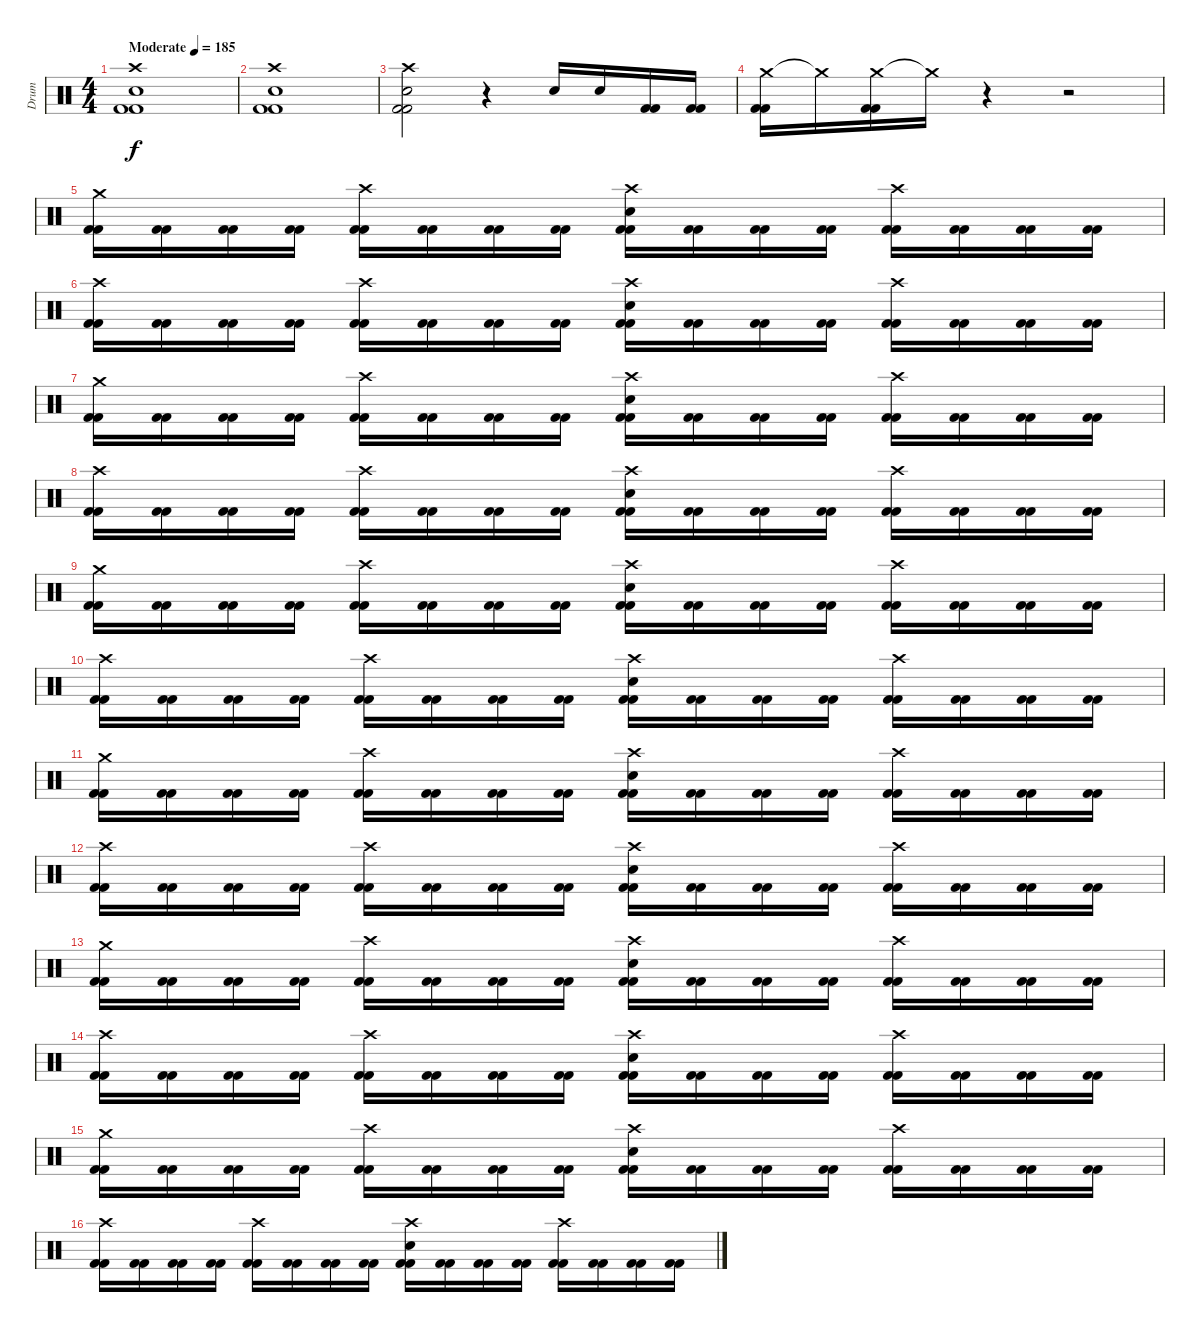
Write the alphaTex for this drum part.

\track ("Drum" "Drum") {instrument percussion}
\staff {score}
\articulation defaults
\ts (4 4)
\tempo (185 "Moderate")
\clef neutral
\ks c
("Crash high (hit)" "Electric Snare (hit)" "Kick (hit) 2" "Kick (hit) 2").1{dy f} |
("Crash high (hit)" "Electric Snare (hit)" "Kick (hit) 2" "Kick (hit) 2").1 |
("Crash high (hit)" "Electric Snare (hit)" "Kick (hit) 2" "Kick (hit) 2").2 r.4 "Electric Snare (hit)".16 "Electric Snare (hit)".16 ("Kick (hit) 2" "Kick (hit) 2").16 ("Kick (hit) 2" "Kick (hit) 2").16 |
("Crash medium (hit)" "Kick (hit) 2" "Kick (hit) 2").16{volume 14} "Crash medium (hit)"{t}.16{volume 2} ("Crash medium (hit)" "Kick (hit) 2" "Kick (hit) 2").16{volume 14} "Crash medium (hit)"{t}.16{volume 2} r.4{volume 14} r.2 |
("Crash medium (hit)" "Kick (hit) 2" "Kick (hit) 2").16 ("Kick (hit) 2" "Kick (hit) 2").16 ("Kick (hit) 2" "Kick (hit) 2").16 ("Kick (hit) 2" "Kick (hit) 2").16 ("Crash high (hit)" "Kick (hit) 2" "Kick (hit) 2").16 ("Kick (hit) 2" "Kick (hit) 2").16 ("Kick (hit) 2" "Kick (hit) 2").16 ("Kick (hit) 2" "Kick (hit) 2").16 ("Crash high (hit)" "Electric Snare (hit)" "Kick (hit) 2" "Kick (hit) 2").16 ("Kick (hit) 2" "Kick (hit) 2").16 ("Kick (hit) 2" "Kick (hit) 2").16 ("Kick (hit) 2" "Kick (hit) 2").16 ("Crash high (hit)" "Kick (hit) 2" "Kick (hit) 2").16 ("Kick (hit) 2" "Kick (hit) 2").16 ("Kick (hit) 2" "Kick (hit) 2").16 ("Kick (hit) 2" "Kick (hit) 2").16 |
("Crash high (hit)" "Kick (hit) 2" "Kick (hit) 2").16 ("Kick (hit) 2" "Kick (hit) 2").16 ("Kick (hit) 2" "Kick (hit) 2").16 ("Kick (hit) 2" "Kick (hit) 2").16 ("Crash high (hit)" "Kick (hit) 2" "Kick (hit) 2").16 ("Kick (hit) 2" "Kick (hit) 2").16 ("Kick (hit) 2" "Kick (hit) 2").16 ("Kick (hit) 2" "Kick (hit) 2").16 ("Crash high (hit)" "Electric Snare (hit)" "Kick (hit) 2" "Kick (hit) 2").16 ("Kick (hit) 2" "Kick (hit) 2").16 ("Kick (hit) 2" "Kick (hit) 2").16 ("Kick (hit) 2" "Kick (hit) 2").16 ("Crash high (hit)" "Kick (hit) 2" "Kick (hit) 2").16 ("Kick (hit) 2" "Kick (hit) 2").16 ("Kick (hit) 2" "Kick (hit) 2").16 ("Kick (hit) 2" "Kick (hit) 2").16 |
("Crash medium (hit)" "Kick (hit) 2" "Kick (hit) 2").16 ("Kick (hit) 2" "Kick (hit) 2").16 ("Kick (hit) 2" "Kick (hit) 2").16 ("Kick (hit) 2" "Kick (hit) 2").16 ("Crash high (hit)" "Kick (hit) 2" "Kick (hit) 2").16 ("Kick (hit) 2" "Kick (hit) 2").16 ("Kick (hit) 2" "Kick (hit) 2").16 ("Kick (hit) 2" "Kick (hit) 2").16 ("Crash high (hit)" "Electric Snare (hit)" "Kick (hit) 2" "Kick (hit) 2").16 ("Kick (hit) 2" "Kick (hit) 2").16 ("Kick (hit) 2" "Kick (hit) 2").16 ("Kick (hit) 2" "Kick (hit) 2").16 ("Crash high (hit)" "Kick (hit) 2" "Kick (hit) 2").16 ("Kick (hit) 2" "Kick (hit) 2").16 ("Kick (hit) 2" "Kick (hit) 2").16 ("Kick (hit) 2" "Kick (hit) 2").16 |
("Crash high (hit)" "Kick (hit) 2" "Kick (hit) 2").16 ("Kick (hit) 2" "Kick (hit) 2").16 ("Kick (hit) 2" "Kick (hit) 2").16 ("Kick (hit) 2" "Kick (hit) 2").16 ("Crash high (hit)" "Kick (hit) 2" "Kick (hit) 2").16 ("Kick (hit) 2" "Kick (hit) 2").16 ("Kick (hit) 2" "Kick (hit) 2").16 ("Kick (hit) 2" "Kick (hit) 2").16 ("Crash high (hit)" "Electric Snare (hit)" "Kick (hit) 2" "Kick (hit) 2").16 ("Kick (hit) 2" "Kick (hit) 2").16 ("Kick (hit) 2" "Kick (hit) 2").16 ("Kick (hit) 2" "Kick (hit) 2").16 ("Crash high (hit)" "Kick (hit) 2" "Kick (hit) 2").16 ("Kick (hit) 2" "Kick (hit) 2").16 ("Kick (hit) 2" "Kick (hit) 2").16 ("Kick (hit) 2" "Kick (hit) 2").16 |
("Crash medium (hit)" "Kick (hit) 2" "Kick (hit) 2").16 ("Kick (hit) 2" "Kick (hit) 2").16 ("Kick (hit) 2" "Kick (hit) 2").16 ("Kick (hit) 2" "Kick (hit) 2").16 ("Crash high (hit)" "Kick (hit) 2" "Kick (hit) 2").16 ("Kick (hit) 2" "Kick (hit) 2").16 ("Kick (hit) 2" "Kick (hit) 2").16 ("Kick (hit) 2" "Kick (hit) 2").16 ("Crash high (hit)" "Electric Snare (hit)" "Kick (hit) 2" "Kick (hit) 2").16 ("Kick (hit) 2" "Kick (hit) 2").16 ("Kick (hit) 2" "Kick (hit) 2").16 ("Kick (hit) 2" "Kick (hit) 2").16 ("Crash high (hit)" "Kick (hit) 2" "Kick (hit) 2").16 ("Kick (hit) 2" "Kick (hit) 2").16 ("Kick (hit) 2" "Kick (hit) 2").16 ("Kick (hit) 2" "Kick (hit) 2").16 |
("Crash high (hit)" "Kick (hit) 2" "Kick (hit) 2").16 ("Kick (hit) 2" "Kick (hit) 2").16 ("Kick (hit) 2" "Kick (hit) 2").16 ("Kick (hit) 2" "Kick (hit) 2").16 ("Crash high (hit)" "Kick (hit) 2" "Kick (hit) 2").16 ("Kick (hit) 2" "Kick (hit) 2").16 ("Kick (hit) 2" "Kick (hit) 2").16 ("Kick (hit) 2" "Kick (hit) 2").16 ("Crash high (hit)" "Electric Snare (hit)" "Kick (hit) 2" "Kick (hit) 2").16 ("Kick (hit) 2" "Kick (hit) 2").16 ("Kick (hit) 2" "Kick (hit) 2").16 ("Kick (hit) 2" "Kick (hit) 2").16 ("Crash high (hit)" "Kick (hit) 2" "Kick (hit) 2").16 ("Kick (hit) 2" "Kick (hit) 2").16 ("Kick (hit) 2" "Kick (hit) 2").16 ("Kick (hit) 2" "Kick (hit) 2").16 |
("Crash medium (hit)" "Kick (hit) 2" "Kick (hit) 2").16 ("Kick (hit) 2" "Kick (hit) 2").16 ("Kick (hit) 2" "Kick (hit) 2").16 ("Kick (hit) 2" "Kick (hit) 2").16 ("Crash high (hit)" "Kick (hit) 2" "Kick (hit) 2").16 ("Kick (hit) 2" "Kick (hit) 2").16 ("Kick (hit) 2" "Kick (hit) 2").16 ("Kick (hit) 2" "Kick (hit) 2").16 ("Crash high (hit)" "Electric Snare (hit)" "Kick (hit) 2" "Kick (hit) 2").16 ("Kick (hit) 2" "Kick (hit) 2").16 ("Kick (hit) 2" "Kick (hit) 2").16 ("Kick (hit) 2" "Kick (hit) 2").16 ("Crash high (hit)" "Kick (hit) 2" "Kick (hit) 2").16 ("Kick (hit) 2" "Kick (hit) 2").16 ("Kick (hit) 2" "Kick (hit) 2").16 ("Kick (hit) 2" "Kick (hit) 2").16 |
("Crash high (hit)" "Kick (hit) 2" "Kick (hit) 2").16 ("Kick (hit) 2" "Kick (hit) 2").16 ("Kick (hit) 2" "Kick (hit) 2").16 ("Kick (hit) 2" "Kick (hit) 2").16 ("Crash high (hit)" "Kick (hit) 2" "Kick (hit) 2").16 ("Kick (hit) 2" "Kick (hit) 2").16 ("Kick (hit) 2" "Kick (hit) 2").16 ("Kick (hit) 2" "Kick (hit) 2").16 ("Crash high (hit)" "Electric Snare (hit)" "Kick (hit) 2" "Kick (hit) 2").16 ("Kick (hit) 2" "Kick (hit) 2").16 ("Kick (hit) 2" "Kick (hit) 2").16 ("Kick (hit) 2" "Kick (hit) 2").16 ("Crash high (hit)" "Kick (hit) 2" "Kick (hit) 2").16 ("Kick (hit) 2" "Kick (hit) 2").16 ("Kick (hit) 2" "Kick (hit) 2").16 ("Kick (hit) 2" "Kick (hit) 2").16 |
("Crash medium (hit)" "Kick (hit) 2" "Kick (hit) 2").16 ("Kick (hit) 2" "Kick (hit) 2").16 ("Kick (hit) 2" "Kick (hit) 2").16 ("Kick (hit) 2" "Kick (hit) 2").16 ("Crash high (hit)" "Kick (hit) 2" "Kick (hit) 2").16 ("Kick (hit) 2" "Kick (hit) 2").16 ("Kick (hit) 2" "Kick (hit) 2").16 ("Kick (hit) 2" "Kick (hit) 2").16 ("Crash high (hit)" "Electric Snare (hit)" "Kick (hit) 2" "Kick (hit) 2").16 ("Kick (hit) 2" "Kick (hit) 2").16 ("Kick (hit) 2" "Kick (hit) 2").16 ("Kick (hit) 2" "Kick (hit) 2").16 ("Crash high (hit)" "Kick (hit) 2" "Kick (hit) 2").16 ("Kick (hit) 2" "Kick (hit) 2").16 ("Kick (hit) 2" "Kick (hit) 2").16 ("Kick (hit) 2" "Kick (hit) 2").16 |
("Crash high (hit)" "Kick (hit) 2" "Kick (hit) 2").16 ("Kick (hit) 2" "Kick (hit) 2").16 ("Kick (hit) 2" "Kick (hit) 2").16 ("Kick (hit) 2" "Kick (hit) 2").16 ("Crash high (hit)" "Kick (hit) 2" "Kick (hit) 2").16 ("Kick (hit) 2" "Kick (hit) 2").16 ("Kick (hit) 2" "Kick (hit) 2").16 ("Kick (hit) 2" "Kick (hit) 2").16 ("Crash high (hit)" "Electric Snare (hit)" "Kick (hit) 2" "Kick (hit) 2").16 ("Kick (hit) 2" "Kick (hit) 2").16 ("Kick (hit) 2" "Kick (hit) 2").16 ("Kick (hit) 2" "Kick (hit) 2").16 ("Crash high (hit)" "Kick (hit) 2" "Kick (hit) 2").16 ("Kick (hit) 2" "Kick (hit) 2").16 ("Kick (hit) 2" "Kick (hit) 2").16 ("Kick (hit) 2" "Kick (hit) 2").16 |
("Crash medium (hit)" "Kick (hit) 2" "Kick (hit) 2").16 ("Kick (hit) 2" "Kick (hit) 2").16 ("Kick (hit) 2" "Kick (hit) 2").16 ("Kick (hit) 2" "Kick (hit) 2").16 ("Crash high (hit)" "Kick (hit) 2" "Kick (hit) 2").16 ("Kick (hit) 2" "Kick (hit) 2").16 ("Kick (hit) 2" "Kick (hit) 2").16 ("Kick (hit) 2" "Kick (hit) 2").16 ("Crash high (hit)" "Electric Snare (hit)" "Kick (hit) 2" "Kick (hit) 2").16 ("Kick (hit) 2" "Kick (hit) 2").16 ("Kick (hit) 2" "Kick (hit) 2").16 ("Kick (hit) 2" "Kick (hit) 2").16 ("Crash high (hit)" "Kick (hit) 2" "Kick (hit) 2").16 ("Kick (hit) 2" "Kick (hit) 2").16 ("Kick (hit) 2" "Kick (hit) 2").16 ("Kick (hit) 2" "Kick (hit) 2").16 |
("Crash high (hit)" "Kick (hit) 2" "Kick (hit) 2").16 ("Kick (hit) 2" "Kick (hit) 2").16 ("Kick (hit) 2" "Kick (hit) 2").16 ("Kick (hit) 2" "Kick (hit) 2").16 ("Crash high (hit)" "Kick (hit) 2" "Kick (hit) 2").16 ("Kick (hit) 2" "Kick (hit) 2").16 ("Kick (hit) 2" "Kick (hit) 2").16 ("Kick (hit) 2" "Kick (hit) 2").16 ("Crash high (hit)" "Electric Snare (hit)" "Kick (hit) 2" "Kick (hit) 2").16 ("Kick (hit) 2" "Kick (hit) 2").16 ("Kick (hit) 2" "Kick (hit) 2").16 ("Kick (hit) 2" "Kick (hit) 2").16 ("Crash high (hit)" "Kick (hit) 2" "Kick (hit) 2").16 ("Kick (hit) 2" "Kick (hit) 2").16 ("Kick (hit) 2" "Kick (hit) 2").16 ("Kick (hit) 2" "Kick (hit) 2").16
